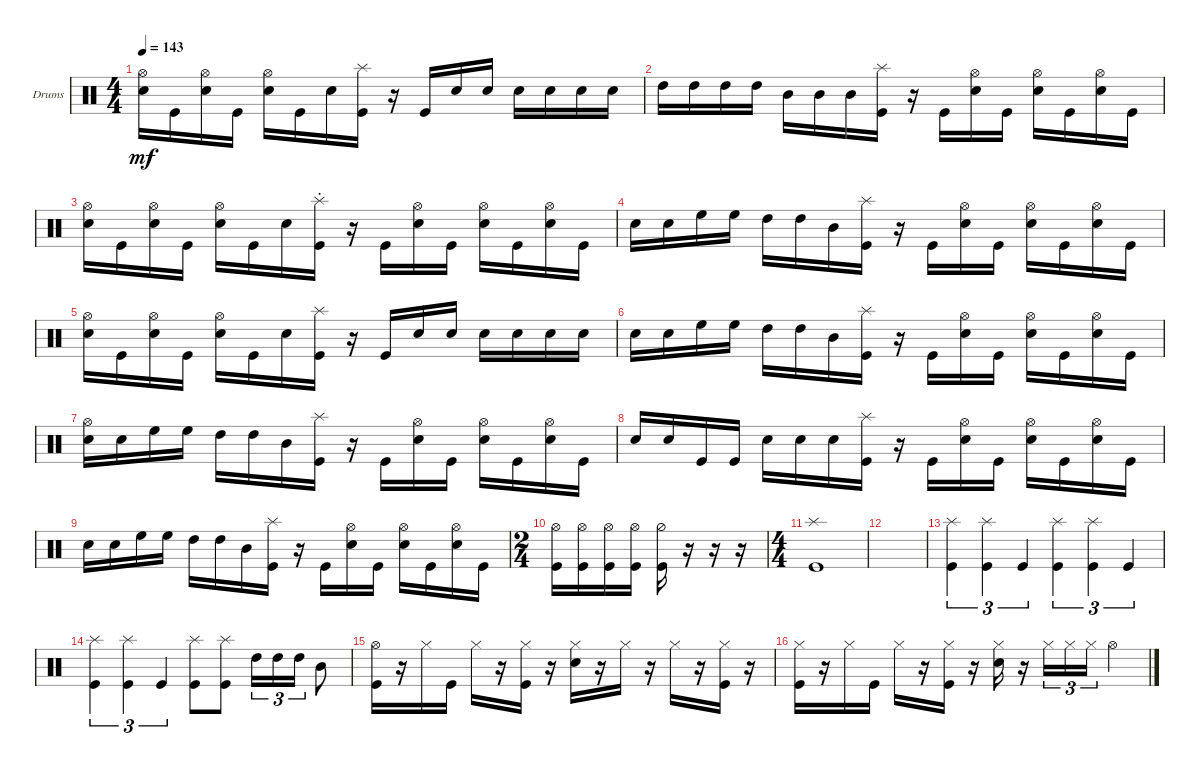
\bracketExtendMode groupsimilarinstruments
\firstSystemTrackNameOrientation horizontal
\otherSystemsTrackNameOrientation horizontal
\track ("death drumz" "Drums") {instrument percussion}
\staff {score}
\articulation defaults
\ts (4 4)
\tempo 143
\clef neutral
\ks c
("Snare (hit) 2" "Hi-Hat (open)").16{dy mf} "Kick (hit)".16 ("Snare (hit) 2" "Hi-Hat (open)").16 "Kick (hit)".16 ("Snare (hit) 2" "Hi-Hat (open)").16 "Kick (hit)".16 "Snare (hit) 2".16 ("Kick (hit)" "Splash (hit)").16 r.16 "Kick (hit)".16 "Snare (hit) 2".16 "Snare (hit) 2".16 "Snare (hit) 2".16 "Snare (hit) 2".16 "Snare (hit) 2".16 "Snare (hit) 2".16 |
"High Tom (hit)".16 "High Tom (hit)".16 "High Tom (hit)".16 "High Tom (hit)".16 "Mid Tom (hit)".16 "Mid Tom (hit)".16 "Mid Tom (hit)".16 ("Kick (hit)" "Splash (hit)").16 r.16 "Kick (hit)".16 ("Snare (hit) 2" "Hi-Hat (open)").16 "Kick (hit)".16 ("Snare (hit) 2" "Hi-Hat (open)").16 "Kick (hit)".16 ("Snare (hit) 2" "Hi-Hat (open)").16 "Kick (hit)".16 |
("Snare (hit) 2" "Hi-Hat (open)").16 "Kick (hit)".16 ("Snare (hit) 2" "Hi-Hat (open)").16 "Kick (hit)".16 ("Snare (hit) 2" "Hi-Hat (open)").16 "Kick (hit)".16 "Snare (hit) 2".16 ("Kick (hit)" "Splash (hit)"{st}).16 r.16 "Kick (hit)".16 ("Snare (hit) 2" "Hi-Hat (open)").16 "Kick (hit)".16 ("Snare (hit) 2" "Hi-Hat (open)").16 "Kick (hit)".16 ("Snare (hit) 2" "Hi-Hat (open)").16 "Kick (hit)".16 |
"Snare (hit) 2".16 "Snare (hit) 2".16 "High Floor Tom (hit)".16 "High Floor Tom (hit)".16 "High Tom (hit)".16 "High Tom (hit)".16 "Mid Tom (hit)".16 ("Kick (hit)" "Splash (hit)").16 r.16 "Kick (hit)".16 ("Snare (hit) 2" "Hi-Hat (open)").16 "Kick (hit)".16 ("Snare (hit) 2" "Hi-Hat (open)").16 "Kick (hit)".16 ("Snare (hit) 2" "Hi-Hat (open)").16 "Kick (hit)".16 |
("Snare (hit) 2" "Hi-Hat (open)").16 "Kick (hit)".16 ("Snare (hit) 2" "Hi-Hat (open)").16 "Kick (hit)".16 ("Snare (hit) 2" "Hi-Hat (open)").16 "Kick (hit)".16 "Snare (hit) 2".16 ("Kick (hit)" "Splash (hit)").16 r.16 "Kick (hit)".16 "Snare (hit) 2".16 "Snare (hit) 2".16 "Snare (hit) 2".16 "Snare (hit) 2".16 "Snare (hit) 2".16 "Snare (hit) 2".16 |
"Snare (hit) 2".16 "Snare (hit) 2".16 "High Floor Tom (hit)".16 "High Floor Tom (hit)".16 "High Tom (hit)".16 "High Tom (hit)".16 "Mid Tom (hit)".16 ("Kick (hit)" "Splash (hit)").16 r.16 "Kick (hit)".16 ("Snare (hit) 2" "Hi-Hat (open)").16 "Kick (hit)".16 ("Snare (hit) 2" "Hi-Hat (open)").16 "Kick (hit)".16 ("Snare (hit) 2" "Hi-Hat (open)").16 "Kick (hit)".16 |
("Snare (hit) 2" "Hi-Hat (open)").16 "Snare (hit) 2".16 "High Floor Tom (hit)".16 "High Floor Tom (hit)".16 "High Tom (hit)".16 "High Tom (hit)".16 "Mid Tom (hit)".16 ("Kick (hit)" "Splash (hit)").16 r.16 "Kick (hit)".16 ("Snare (hit) 2" "Hi-Hat (open)").16 "Kick (hit)".16 ("Snare (hit) 2" "Hi-Hat (open)").16 "Kick (hit)".16 ("Snare (hit) 2" "Hi-Hat (open)").16 "Kick (hit)".16 |
"Snare (hit) 2".16 "Snare (hit) 2".16 "Kick (hit)".16 "Kick (hit)".16 "Snare (hit) 2".16 "Snare (hit) 2".16 "Snare (hit) 2".16 ("Kick (hit)" "Splash (hit)").16 r.16 "Kick (hit)".16 ("Snare (hit) 2" "Hi-Hat (open)").16 "Kick (hit)".16 ("Snare (hit) 2" "Hi-Hat (open)").16 "Kick (hit)".16 ("Snare (hit) 2" "Hi-Hat (open)").16 "Kick (hit)".16 |
"Snare (hit) 2".16 "Snare (hit) 2".16 "High Floor Tom (hit)".16 "High Floor Tom (hit)".16 "High Tom (hit)".16 "High Tom (hit)".16 "Mid Tom (hit)".16 ("Kick (hit)" "Splash (hit)").16 r.16 "Kick (hit)".16 ("Snare (hit) 2" "Hi-Hat (open)").16 "Kick (hit)".16 ("Snare (hit) 2" "Hi-Hat (open)").16 "Kick (hit)".16 ("Snare (hit) 2" "Hi-Hat (open)").16 "Kick (hit)".16 |
\ts (2 4)
("Kick (hit)" "Hi-Hat (open)").16 ("Kick (hit)" "Hi-Hat (open)").16 ("Kick (hit)" "Hi-Hat (open)").16 ("Kick (hit)" "Hi-Hat (open)").16 ("Kick (hit)" "Hi-Hat (half)").16 r.16 r.16 r.16 |
\ts (4 4)
("Kick (hit)" "Splash (hit)").1 |
|
("Kick (hit)" "Splash (hit)").4{tu (3 2)} ("Kick (hit)" "Splash (hit)").4{tu (3 2)} "Kick (hit)".4{tu (3 2)} ("Kick (hit)" "Splash (hit)").4{tu (3 2)} ("Kick (hit)" "Splash (hit)").4{tu (3 2)} "Kick (hit)".4{tu (3 2)} |
("Kick (hit)" "Splash (hit)").4{tu (3 2)} ("Kick (hit)" "Splash (hit)").4{tu (3 2)} "Kick (hit)".4{tu (3 2)} ("Kick (hit)" "Splash (hit)").8 ("Kick (hit)" "Splash (hit)").8 "High Tom (hit)".16{tu (3 2)} "High Tom (hit)".16{tu (3 2)} "High Tom (hit)".16{tu (3 2)} "Mid Tom (hit)".8 |
("Kick (hit)" "Hi-Hat (open)").16 r.16 "Hi-Hat (closed)".16 "Kick (hit)".16 "Hi-Hat (closed)".16 r.16 ("Kick (hit)" "Hi-Hat (closed)").16 r.16 ("Snare (hit) 2" "Hi-Hat (closed)").16 r.16 "Hi-Hat (closed)".16 r.16 "Hi-Hat (closed)".16 r.16 ("Kick (hit)" "Hi-Hat (closed)").16 r.16 |
("Kick (hit)" "Hi-Hat (closed)").16 r.16 "Hi-Hat (closed)".16 "Kick (hit)".16 "Hi-Hat (closed)".16 r.16 ("Kick (hit)" "Hi-Hat (closed)").16 r.16 ("Snare (hit) 2" "Hi-Hat (closed)").16 r.16 "Hi-Hat (closed)".16{tu (3 2)} "Hi-Hat (closed)".16{tu (3 2)} "Hi-Hat (closed)".16{tu (3 2)} "Hi-Hat (open)".4
